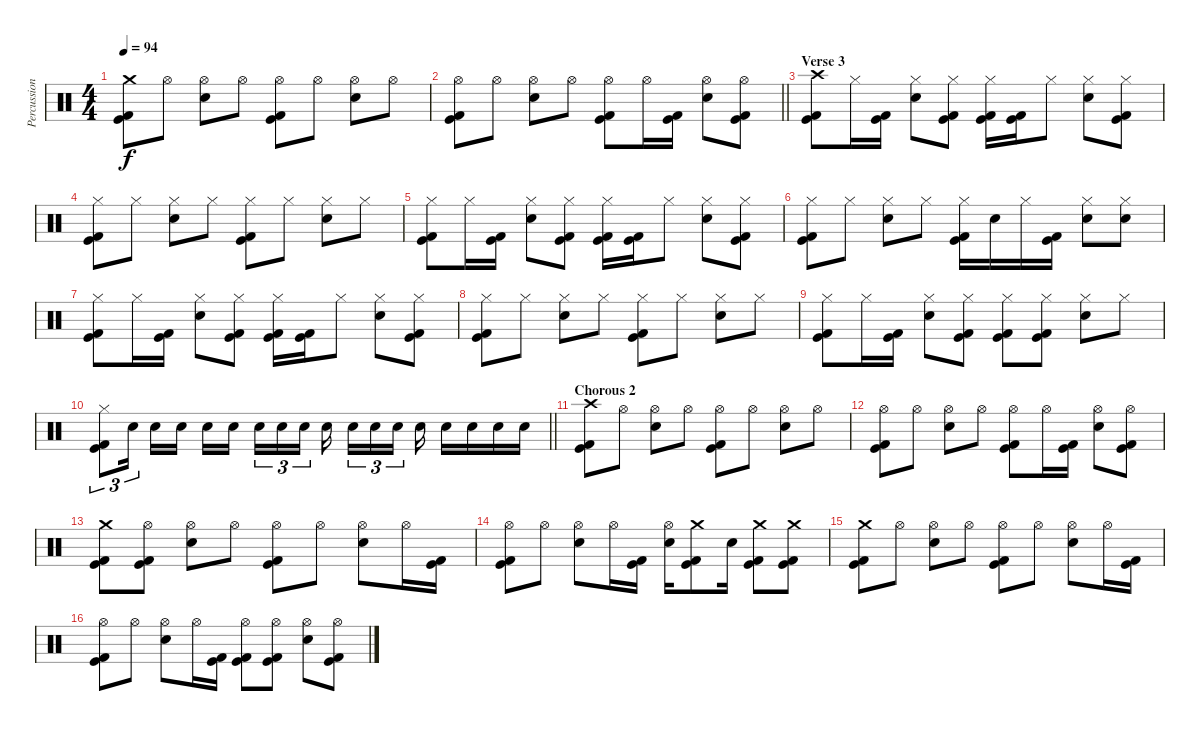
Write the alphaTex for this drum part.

\track ("Percussion" "Percussion") {instrument percussion}
\staff {score}
\articulation defaults
\ts (4 4)
\tempo 94
\clef neutral
\ks c
("Crash medium (hit)" "Kick (hit)" "Kick (hit) 2").8{dy f} "Hi-Hat (open)".8 ("Hi-Hat (open)" "Electric Snare (hit)").8 "Hi-Hat (open)".8 ("Hi-Hat (open)" "Kick (hit)" "Kick (hit) 2").8 "Hi-Hat (open)".8 ("Hi-Hat (open)" "Electric Snare (hit)").8 "Hi-Hat (open)".8 |
\barLineRight lightlight
("Hi-Hat (open)" "Kick (hit)" "Kick (hit) 2").8 "Hi-Hat (open)".8 ("Hi-Hat (open)" "Electric Snare (hit)").8 "Hi-Hat (open)".8 ("Hi-Hat (open)" "Kick (hit)" "Kick (hit) 2").8 "Hi-Hat (open)".16 ("Kick (hit)" "Kick (hit) 2").16 ("Hi-Hat (open)" "Electric Snare (hit)").8 ("Hi-Hat (open)" "Kick (hit)" "Kick (hit) 2").8 |
\section ("" "Verse 3")
("Crash high (hit)" "Kick (hit)" "Kick (hit) 2").8 "Hi-Hat (closed)".16 ("Kick (hit)" "Kick (hit) 2").16 ("Hi-Hat (closed)" "Electric Snare (hit)").8 ("Hi-Hat (closed)" "Kick (hit)" "Kick (hit) 2").8 ("Hi-Hat (closed)" "Kick (hit)" "Kick (hit) 2").16 ("Kick (hit)" "Kick (hit) 2").16 "Hi-Hat (closed)".8 ("Hi-Hat (closed)" "Electric Snare (hit)").8 ("Hi-Hat (closed)" "Kick (hit)" "Kick (hit) 2").8 |
("Hi-Hat (closed)" "Kick (hit)" "Kick (hit) 2").8 "Hi-Hat (closed)".8 ("Hi-Hat (closed)" "Electric Snare (hit)").8 "Hi-Hat (closed)".8 ("Hi-Hat (closed)" "Kick (hit)" "Kick (hit) 2").8 "Hi-Hat (closed)".8 ("Hi-Hat (closed)" "Electric Snare (hit)").8 "Hi-Hat (closed)".8 |
("Hi-Hat (closed)" "Kick (hit)" "Kick (hit) 2").8 "Hi-Hat (closed)".16 ("Kick (hit)" "Kick (hit) 2").16 ("Hi-Hat (closed)" "Electric Snare (hit)").8 ("Hi-Hat (closed)" "Kick (hit)" "Kick (hit) 2").8 ("Hi-Hat (closed)" "Kick (hit)" "Kick (hit) 2").16 ("Kick (hit)" "Kick (hit) 2").16 "Hi-Hat (closed)".8 ("Hi-Hat (closed)" "Electric Snare (hit)").8 ("Hi-Hat (closed)" "Kick (hit)" "Kick (hit) 2").8 |
("Hi-Hat (closed)" "Kick (hit)" "Kick (hit) 2").8 "Hi-Hat (closed)".8 ("Hi-Hat (closed)" "Electric Snare (hit)").8 "Hi-Hat (closed)".8 ("Hi-Hat (closed)" "Kick (hit)" "Kick (hit) 2").16 "Electric Snare (hit)".16 "Hi-Hat (closed)".16 ("Kick (hit)" "Kick (hit) 2").16 ("Hi-Hat (closed)" "Electric Snare (hit)").8 ("Hi-Hat (closed)" "Electric Snare (hit)").8 |
("Hi-Hat (closed)" "Kick (hit)" "Kick (hit) 2").8 "Hi-Hat (closed)".16 ("Kick (hit)" "Kick (hit) 2").16 ("Hi-Hat (closed)" "Electric Snare (hit)").8 ("Hi-Hat (closed)" "Kick (hit)" "Kick (hit) 2").8 ("Hi-Hat (closed)" "Kick (hit)" "Kick (hit) 2").16 ("Kick (hit)" "Kick (hit) 2").16 "Hi-Hat (closed)".8 ("Hi-Hat (closed)" "Electric Snare (hit)").8 ("Hi-Hat (closed)" "Kick (hit)" "Kick (hit) 2").8 |
("Hi-Hat (closed)" "Kick (hit)" "Kick (hit) 2").8 "Hi-Hat (closed)".8 ("Hi-Hat (closed)" "Electric Snare (hit)").8 "Hi-Hat (closed)".8 ("Hi-Hat (closed)" "Kick (hit)" "Kick (hit) 2").8 "Hi-Hat (closed)".8 ("Hi-Hat (closed)" "Electric Snare (hit)").8 "Hi-Hat (closed)".8 |
("Hi-Hat (closed)" "Kick (hit)" "Kick (hit) 2").8 "Hi-Hat (closed)".16 ("Kick (hit)" "Kick (hit) 2").16 ("Hi-Hat (closed)" "Electric Snare (hit)").8 ("Hi-Hat (closed)" "Kick (hit)" "Kick (hit) 2").8 ("Hi-Hat (closed)" "Kick (hit)" "Kick (hit) 2").8 ("Hi-Hat (closed)" "Kick (hit)" "Kick (hit) 2").8 ("Hi-Hat (closed)" "Electric Snare (hit)").8 "Hi-Hat (closed)".8 |
\barLineRight lightlight
("Hi-Hat (closed)" "Kick (hit)" "Kick (hit) 2").8{tu (3 2)} "Electric Snare (hit)".16{tu (3 2) beam splitsecondary} "Electric Snare (hit)".16 "Electric Snare (hit)".16 "Electric Snare (hit)".16 "Electric Snare (hit)".16{beam splitsecondary} "Electric Snare (hit)".16{tu (3 2)} "Electric Snare (hit)".16{tu (3 2)} "Electric Snare (hit)".16{tu (3 2)} "Electric Snare (hit)".16{beam splitsecondary} "Electric Snare (hit)".16{tu (3 2)} "Electric Snare (hit)".16{tu (3 2)} "Electric Snare (hit)".16{tu (3 2) beam splitsecondary} "Electric Snare (hit)".16 "Electric Snare (hit)".16 "Electric Snare (hit)".16 "Electric Snare (hit)".16 "Electric Snare (hit)".16 |
\section ("" "Chorous 2")
("Crash high (hit)" "Kick (hit)" "Kick (hit) 2").8 "Hi-Hat (open)".8 ("Hi-Hat (open)" "Electric Snare (hit)").8 "Hi-Hat (open)".8 ("Hi-Hat (open)" "Kick (hit)" "Kick (hit) 2").8 "Hi-Hat (open)".8 ("Hi-Hat (open)" "Electric Snare (hit)").8 "Hi-Hat (open)".8 |
("Hi-Hat (open)" "Kick (hit)" "Kick (hit) 2").8 "Hi-Hat (open)".8 ("Hi-Hat (open)" "Electric Snare (hit)").8 "Hi-Hat (open)".8 ("Hi-Hat (open)" "Kick (hit)" "Kick (hit) 2").8 "Hi-Hat (open)".16 ("Kick (hit)" "Kick (hit) 2").16 ("Hi-Hat (open)" "Electric Snare (hit)").8 ("Hi-Hat (open)" "Kick (hit)" "Kick (hit) 2").8 |
("Crash medium (hit)" "Kick (hit)" "Kick (hit) 2").8 ("Hi-Hat (open)" "Kick (hit)" "Kick (hit) 2").8 ("Hi-Hat (open)" "Electric Snare (hit)").8 "Hi-Hat (open)".8 ("Hi-Hat (open)" "Kick (hit)" "Kick (hit) 2").8 "Hi-Hat (open)".8 ("Hi-Hat (open)" "Electric Snare (hit)").8 "Hi-Hat (open)".16 ("Kick (hit)" "Kick (hit) 2").16 |
("Hi-Hat (open)" "Kick (hit)" "Kick (hit) 2").8 "Hi-Hat (open)".8 ("Hi-Hat (open)" "Electric Snare (hit)").8 "Hi-Hat (open)".16 ("Kick (hit)" "Kick (hit) 2").16 ("Hi-Hat (open)" "Electric Snare (hit)").16 ("Crash medium (hit)" "Kick (hit)" "Kick (hit) 2").8 "Electric Snare (hit)".16 ("Crash medium (hit)" "Kick (hit)" "Kick (hit) 2").8 ("Crash medium (hit)" "Kick (hit)" "Kick (hit) 2").8 |
("Crash medium (hit)" "Kick (hit)" "Kick (hit) 2").8 "Hi-Hat (open)".8 ("Hi-Hat (open)" "Electric Snare (hit)").8 "Hi-Hat (open)".8 ("Hi-Hat (open)" "Kick (hit)" "Kick (hit) 2").8 "Hi-Hat (open)".8 ("Hi-Hat (open)" "Electric Snare (hit)").8 "Hi-Hat (open)".16 ("Kick (hit)" "Kick (hit) 2").16 |
("Hi-Hat (open)" "Kick (hit)" "Kick (hit) 2").8 "Hi-Hat (open)".8 ("Hi-Hat (open)" "Electric Snare (hit)").8 "Hi-Hat (open)".16 ("Kick (hit)" "Kick (hit) 2").16 ("Hi-Hat (open)" "Kick (hit)" "Kick (hit) 2").8 ("Hi-Hat (open)" "Kick (hit)" "Kick (hit) 2").8 ("Hi-Hat (open)" "Electric Snare (hit)").8 ("Hi-Hat (open)" "Kick (hit)" "Kick (hit) 2").8
